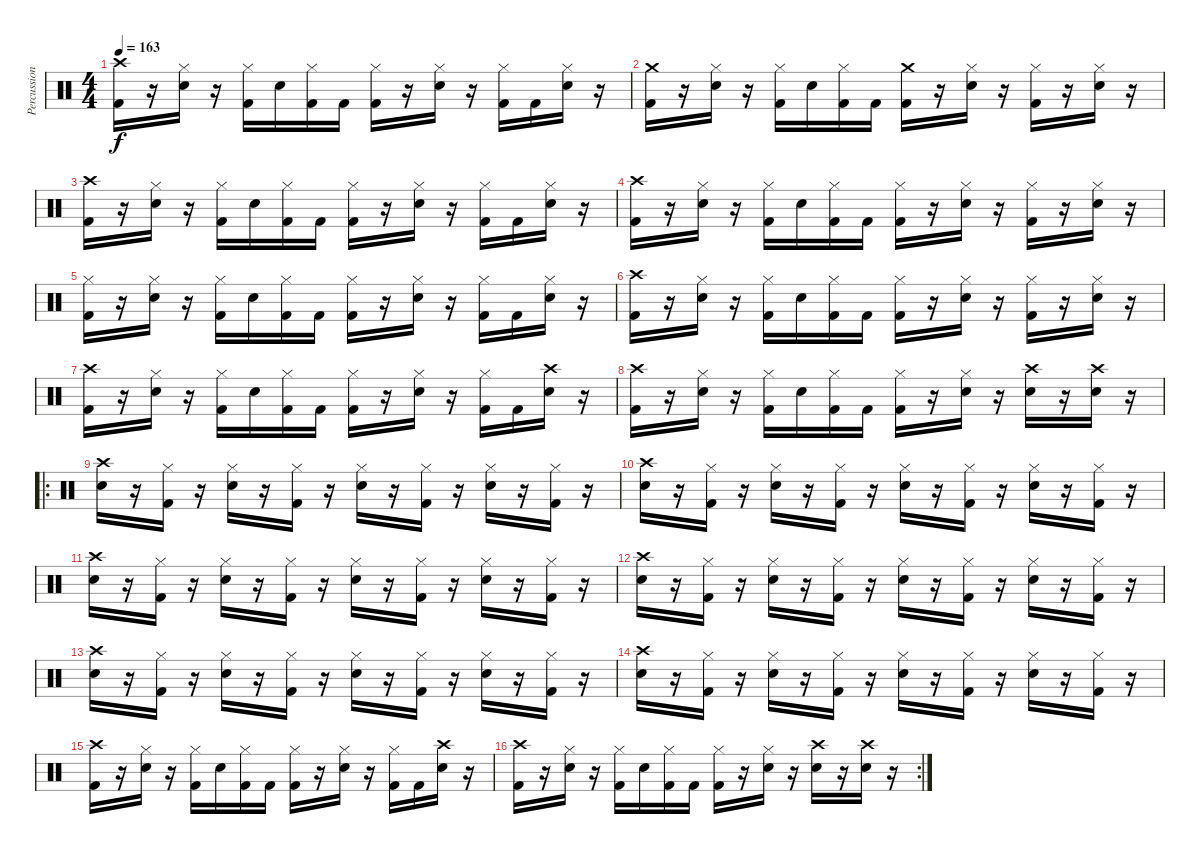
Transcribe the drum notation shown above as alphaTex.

\track ("Percussion" "Percussion") {instrument percussion}
\staff {score}
\articulation defaults
\ts (4 4)
\tempo 163
\clef neutral
\ks c
("Crash high (hit)" "Kick (hit) 2").16{dy f} r.16 ("Hi-Hat (closed)" "Snare (hit) 2").16 r.16 ("Hi-Hat (closed)" "Kick (hit) 2").16 "Snare (hit) 2".16 ("Hi-Hat (closed)" "Kick (hit) 2").16 "Kick (hit) 2".16 ("Hi-Hat (closed)" "Kick (hit) 2").16 r.16 ("Hi-Hat (closed)" "Snare (hit) 2").16 r.16 ("Hi-Hat (closed)" "Kick (hit) 2").16 "Kick (hit) 2".16 ("Hi-Hat (closed)" "Snare (hit) 2").16 r.16 |
("Crash medium (hit)" "Kick (hit) 2").16 r.16 ("Hi-Hat (closed)" "Snare (hit) 2").16 r.16 ("Hi-Hat (closed)" "Kick (hit) 2").16 "Snare (hit) 2".16 ("Hi-Hat (closed)" "Kick (hit) 2").16 "Kick (hit) 2".16 ("Crash medium (hit)" "Kick (hit) 2").16 r.16 ("Hi-Hat (closed)" "Snare (hit) 2").16 r.16 ("Hi-Hat (closed)" "Kick (hit) 2").16 r.16 ("Hi-Hat (closed)" "Snare (hit) 2").16 r.16 |
("Crash high (hit)" "Kick (hit) 2").16 r.16 ("Hi-Hat (closed)" "Snare (hit) 2").16 r.16 ("Hi-Hat (closed)" "Kick (hit) 2").16 "Snare (hit) 2".16 ("Hi-Hat (closed)" "Kick (hit) 2").16 "Kick (hit) 2".16 ("Hi-Hat (closed)" "Kick (hit) 2").16 r.16 ("Hi-Hat (closed)" "Snare (hit) 2").16 r.16 ("Hi-Hat (closed)" "Kick (hit) 2").16 "Kick (hit) 2".16 ("Hi-Hat (closed)" "Snare (hit) 2").16 r.16 |
("Crash high (hit)" "Kick (hit) 2").16 r.16 ("Hi-Hat (closed)" "Snare (hit) 2").16 r.16 ("Hi-Hat (closed)" "Kick (hit) 2").16 "Snare (hit) 2".16 ("Hi-Hat (closed)" "Kick (hit) 2").16 "Kick (hit) 2".16 ("Hi-Hat (closed)" "Kick (hit) 2").16 r.16 ("Hi-Hat (closed)" "Snare (hit) 2").16 r.16 ("Hi-Hat (closed)" "Kick (hit) 2").16 r.16 ("Hi-Hat (closed)" "Snare (hit) 2").16 r.16 |
("Hi-Hat (closed)" "Kick (hit) 2").16 r.16 ("Hi-Hat (closed)" "Snare (hit) 2").16 r.16 ("Hi-Hat (closed)" "Kick (hit) 2").16 "Snare (hit) 2".16 ("Hi-Hat (closed)" "Kick (hit) 2").16 "Kick (hit) 2".16 ("Hi-Hat (closed)" "Kick (hit) 2").16 r.16 ("Hi-Hat (closed)" "Snare (hit) 2").16 r.16 ("Hi-Hat (closed)" "Kick (hit) 2").16 "Kick (hit) 2".16 ("Hi-Hat (closed)" "Snare (hit) 2").16 r.16 |
("Crash high (hit)" "Kick (hit) 2").16 r.16 ("Hi-Hat (closed)" "Snare (hit) 2").16 r.16 ("Hi-Hat (closed)" "Kick (hit) 2").16 "Snare (hit) 2".16 ("Hi-Hat (closed)" "Kick (hit) 2").16 "Kick (hit) 2".16 ("Hi-Hat (closed)" "Kick (hit) 2").16 r.16 ("Hi-Hat (closed)" "Snare (hit) 2").16 r.16 ("Hi-Hat (closed)" "Kick (hit) 2").16 r.16 ("Hi-Hat (closed)" "Snare (hit) 2").16 r.16 |
("Crash high (hit)" "Kick (hit) 2").16 r.16 ("Hi-Hat (closed)" "Snare (hit) 2").16 r.16 ("Hi-Hat (closed)" "Kick (hit) 2").16 "Snare (hit) 2".16 ("Hi-Hat (closed)" "Kick (hit) 2").16 "Kick (hit) 2".16 ("Hi-Hat (closed)" "Kick (hit) 2").16 r.16 ("Hi-Hat (closed)" "Snare (hit) 2").16 r.16 ("Hi-Hat (closed)" "Kick (hit) 2").16 "Kick (hit) 2".16 ("Crash high (hit)" "Snare (hit) 2").16 r.16 |
("Crash high (hit)" "Kick (hit) 2").16 r.16 ("Hi-Hat (closed)" "Snare (hit) 2").16 r.16 ("Hi-Hat (closed)" "Kick (hit) 2").16 "Snare (hit) 2".16 ("Hi-Hat (closed)" "Kick (hit) 2").16 "Kick (hit) 2".16 ("Hi-Hat (closed)" "Kick (hit) 2").16 r.16 ("Hi-Hat (closed)" "Snare (hit) 2").16 r.16 ("Crash high (hit)" "Snare (hit) 2").16 r.16 ("Crash high (hit)" "Snare (hit) 2").16 r.16 |
\ro
("Crash high (hit)" "Snare (hit) 2").16 r.16 ("Hi-Hat (closed)" "Kick (hit) 2").16 r.16 ("Hi-Hat (closed)" "Snare (hit) 2").16 r.16 ("Hi-Hat (closed)" "Kick (hit) 2").16 r.16 ("Hi-Hat (closed)" "Snare (hit) 2").16 r.16 ("Hi-Hat (closed)" "Kick (hit) 2").16 r.16 ("Hi-Hat (closed)" "Snare (hit) 2").16 r.16 ("Hi-Hat (closed)" "Kick (hit) 2").16 r.16 |
("Crash high (hit)" "Snare (hit) 2").16 r.16 ("Hi-Hat (closed)" "Kick (hit) 2").16 r.16 ("Hi-Hat (closed)" "Snare (hit) 2").16 r.16 ("Hi-Hat (closed)" "Kick (hit) 2").16 r.16 ("Hi-Hat (closed)" "Snare (hit) 2").16 r.16 ("Hi-Hat (closed)" "Kick (hit) 2").16 r.16 ("Hi-Hat (closed)" "Snare (hit) 2").16 r.16 ("Hi-Hat (closed)" "Kick (hit) 2").16 r.16 |
("Crash high (hit)" "Snare (hit) 2").16 r.16 ("Hi-Hat (closed)" "Kick (hit) 2").16 r.16 ("Hi-Hat (closed)" "Snare (hit) 2").16 r.16 ("Hi-Hat (closed)" "Kick (hit) 2").16 r.16 ("Hi-Hat (closed)" "Snare (hit) 2").16 r.16 ("Hi-Hat (closed)" "Kick (hit) 2").16 r.16 ("Hi-Hat (closed)" "Snare (hit) 2").16 r.16 ("Hi-Hat (closed)" "Kick (hit) 2").16 r.16 |
("Crash high (hit)" "Snare (hit) 2").16 r.16 ("Hi-Hat (closed)" "Kick (hit) 2").16 r.16 ("Hi-Hat (closed)" "Snare (hit) 2").16 r.16 ("Hi-Hat (closed)" "Kick (hit) 2").16 r.16 ("Hi-Hat (closed)" "Snare (hit) 2").16 r.16 ("Hi-Hat (closed)" "Kick (hit) 2").16 r.16 ("Hi-Hat (closed)" "Snare (hit) 2").16 r.16 ("Hi-Hat (closed)" "Kick (hit) 2").16 r.16 |
("Crash high (hit)" "Snare (hit) 2").16 r.16 ("Hi-Hat (closed)" "Kick (hit) 2").16 r.16 ("Hi-Hat (closed)" "Snare (hit) 2").16 r.16 ("Hi-Hat (closed)" "Kick (hit) 2").16 r.16 ("Hi-Hat (closed)" "Snare (hit) 2").16 r.16 ("Hi-Hat (closed)" "Kick (hit) 2").16 r.16 ("Hi-Hat (closed)" "Snare (hit) 2").16 r.16 ("Hi-Hat (closed)" "Kick (hit) 2").16 r.16 |
("Crash high (hit)" "Snare (hit) 2").16 r.16 ("Hi-Hat (closed)" "Kick (hit) 2").16 r.16 ("Hi-Hat (closed)" "Snare (hit) 2").16 r.16 ("Hi-Hat (closed)" "Kick (hit) 2").16 r.16 ("Hi-Hat (closed)" "Snare (hit) 2").16 r.16 ("Hi-Hat (closed)" "Kick (hit) 2").16 r.16 ("Hi-Hat (closed)" "Snare (hit) 2").16 r.16 ("Hi-Hat (closed)" "Kick (hit) 2").16 r.16 |
("Crash high (hit)" "Kick (hit) 2").16 r.16 ("Hi-Hat (closed)" "Snare (hit) 2").16 r.16 ("Hi-Hat (closed)" "Kick (hit) 2").16 "Snare (hit) 2".16 ("Hi-Hat (closed)" "Kick (hit) 2").16 "Kick (hit) 2".16 ("Hi-Hat (closed)" "Kick (hit) 2").16 r.16 ("Hi-Hat (closed)" "Snare (hit) 2").16 r.16 ("Hi-Hat (closed)" "Kick (hit) 2").16 "Kick (hit) 2".16 ("Crash high (hit)" "Snare (hit) 2").16 r.16 |
\rc 2
("Crash high (hit)" "Kick (hit) 2").16 r.16 ("Hi-Hat (closed)" "Snare (hit) 2").16 r.16 ("Hi-Hat (closed)" "Kick (hit) 2").16 "Snare (hit) 2".16 ("Hi-Hat (closed)" "Kick (hit) 2").16 "Kick (hit) 2".16 ("Hi-Hat (closed)" "Kick (hit) 2").16 r.16 ("Hi-Hat (closed)" "Snare (hit) 2").16 r.16 ("Crash high (hit)" "Snare (hit) 2").16 r.16 ("Crash high (hit)" "Snare (hit) 2").16 r.16
